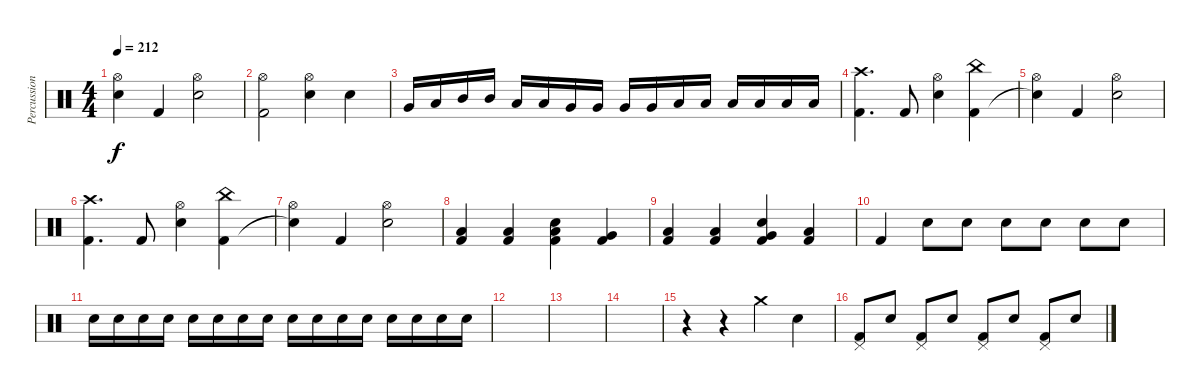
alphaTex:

\track ("Percussions" "Percussion") {instrument percussion}
\staff {score}
\articulation defaults
\ts (4 4)
\tempo 212
\clef neutral
\ks c
("Hi-Hat (open)" "Snare (hit)"{t}).4{dy f} "Kick (hit) 2".4 ("Hi-Hat (open)" "Snare (hit) 2").2 |
("Hi-Hat (open)" "Kick (hit) 2").2 ("Hi-Hat (open)" "Snare (hit) 2").4 "Snare (hit) 2".4 |
"Very Low Tom (hit)".16 "Low Floor Tom (hit)".16 "Mid Tom (hit)".16 "Mid Tom (hit)".16 "Low Tom (hit)".16 "Low Tom (hit)".16 "Very Low Tom (hit)".16 "Very Low Tom (hit)".16 "Very Low Tom (hit)".16 "Very Low Tom (hit)".16 "Low Floor Tom (hit)".16 "Low Floor Tom (hit)".16 "Low Floor Tom (hit)".16 "Low Floor Tom (hit)".16 "Low Floor Tom (hit)".16 "Low Floor Tom (hit)".16 |
("Crash high (hit)" "Kick (hit) 2").4{d} "Kick (hit) 2".8 ("Hi-Hat (open)" "Snare (hit) 2").4 ("China (hit)" "Kick (hit) 2").4 |
("Hi-Hat (open)" "Snare (hit)"{t}).4 "Kick (hit) 2".4 ("Hi-Hat (open)" "Snare (hit) 2").2 |
("Crash high (hit)" "Kick (hit) 2").4{d} "Kick (hit) 2".8 ("Hi-Hat (open)" "Snare (hit) 2").4 ("China (hit)" "Kick (hit) 2").4 |
("Hi-Hat (open)" "Snare (hit)"{t}).4 "Kick (hit) 2".4 ("Hi-Hat (open)" "Snare (hit) 2").2 |
("Low Tom (hit)" "Kick (hit) 2").4 ("Low Tom (hit)" "Kick (hit) 2").4 ("Low Tom (hit)" "Snare (hit) 2" "Kick (hit) 2").4 ("Very Low Tom (hit)" "Kick (hit) 2").4 |
("Low Tom (hit)" "Kick (hit) 2").4 ("Low Tom (hit)" "Kick (hit) 2").4 ("Very Low Tom (hit)" "Snare (hit) 2" "Kick (hit) 2").4 ("Low Floor Tom (hit)" "Kick (hit) 2").4 |
"Kick (hit) 2".4 "Snare (hit) 2".8 "Snare (hit) 2".8 "Snare (hit) 2".8 "Snare (hit) 2".8 "Snare (hit) 2".8 "Snare (hit) 2".8 |
"Snare (hit) 2".16{volume 7} "Snare (hit) 2".16{volume 16} "Snare (hit) 2".16 "Snare (hit) 2".16 "Snare (hit) 2".16 "Snare (hit) 2".16 "Snare (hit) 2".16 "Snare (hit) 2".16 "Snare (hit) 2".16 "Snare (hit) 2".16 "Snare (hit) 2".16 "Snare (hit) 2".16 "Snare (hit) 2".16 "Snare (hit) 2".16 "Snare (hit) 2".16 "Snare (hit) 2".16 |
|
|
|
r.4{volume 13} r.4 "Crash medium (hit)".4 "Snare (hit) 2".4 |
("Pedal Hi-Hat (hit)" "Kick (hit) 2").8 "Snare (hit) 2".8 ("Pedal Hi-Hat (hit)" "Kick (hit) 2").8 "Snare (hit) 2".8 ("Pedal Hi-Hat (hit)" "Kick (hit) 2").8 "Snare (hit) 2".8 ("Pedal Hi-Hat (hit)" "Kick (hit) 2").8 "Snare (hit) 2".8
